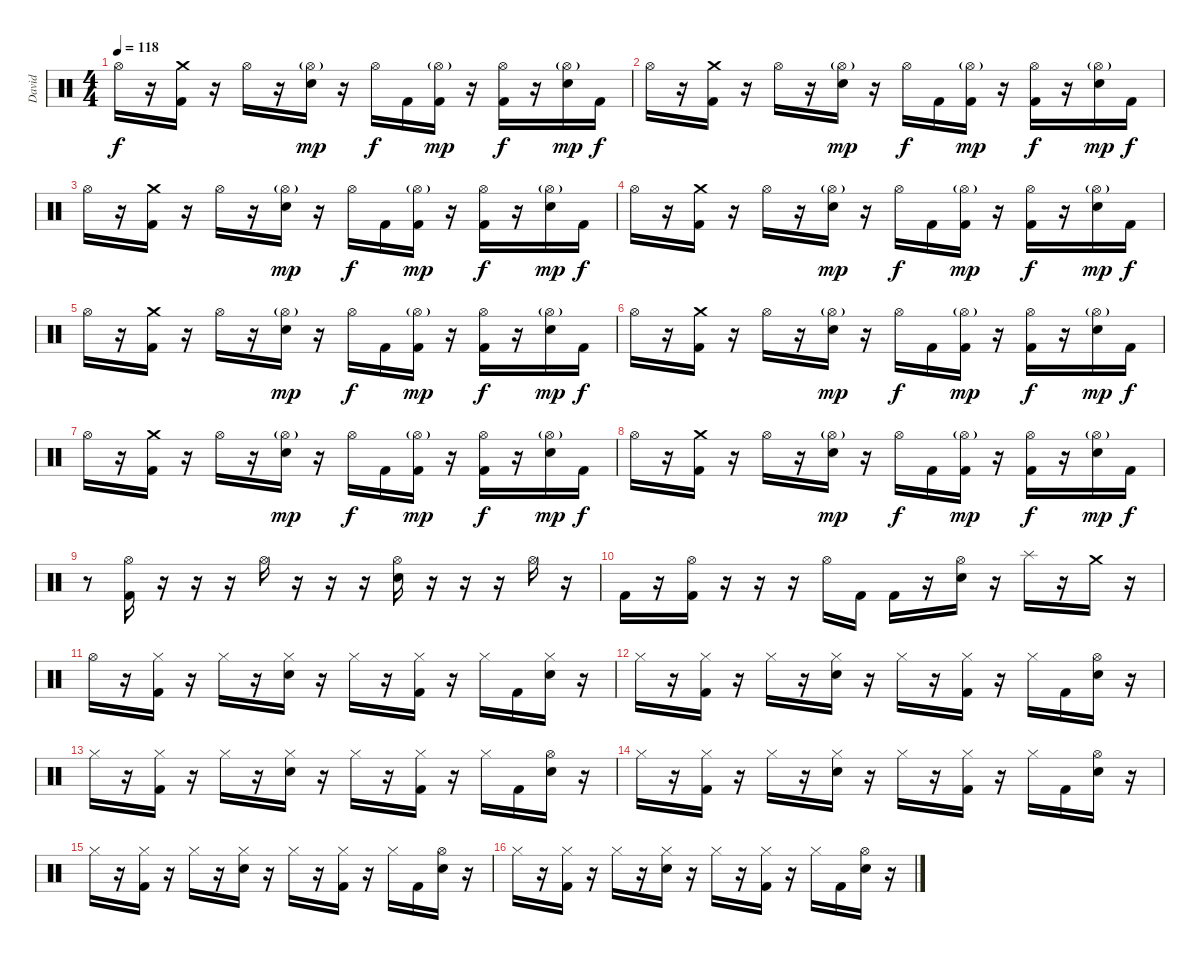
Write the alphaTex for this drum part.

\track ("David" "David") {instrument percussion}
\staff {score}
\articulation defaults
\ts (4 4)
\tempo 118
\clef neutral
\ks c "Hi-Hat (open)".16{dy f}
r.16 ("Crash medium (hit)" "Kick (hit) 2").16 r.16 "Hi-Hat (open)".16 r.16 ("Hi-Hat (open)"{g} "Electric Snare (hit)").16{dy mp} r.16 "Hi-Hat (open)".16{dy f} "Kick (hit) 2".16 ("Hi-Hat (open)"{g} "Kick (hit) 2").16{dy mp} r.16 ("Hi-Hat (open)" "Kick (hit) 2").16{dy f} r.16 ("Hi-Hat (open)"{g} "Electric Snare (hit)").16{dy mp} "Kick (hit) 2".16{dy f} |
"Hi-Hat (open)".16 r.16 ("Crash medium (hit)" "Kick (hit) 2").16 r.16 "Hi-Hat (open)".16 r.16 ("Hi-Hat (open)"{g} "Electric Snare (hit)").16{dy mp} r.16 "Hi-Hat (open)".16{dy f} "Kick (hit) 2".16 ("Hi-Hat (open)"{g} "Kick (hit) 2").16{dy mp} r.16 ("Hi-Hat (open)" "Kick (hit) 2").16{dy f} r.16 ("Hi-Hat (open)"{g} "Electric Snare (hit)").16{dy mp} "Kick (hit) 2".16{dy f} |
"Hi-Hat (open)".16 r.16 ("Crash medium (hit)" "Kick (hit) 2").16 r.16 "Hi-Hat (open)".16 r.16 ("Hi-Hat (open)"{g} "Electric Snare (hit)").16{dy mp} r.16 "Hi-Hat (open)".16{dy f} "Kick (hit) 2".16 ("Hi-Hat (open)"{g} "Kick (hit) 2").16{dy mp} r.16 ("Hi-Hat (open)" "Kick (hit) 2").16{dy f} r.16 ("Hi-Hat (open)"{g} "Electric Snare (hit)").16{dy mp} "Kick (hit) 2".16{dy f} |
"Hi-Hat (open)".16 r.16 ("Crash medium (hit)" "Kick (hit) 2").16 r.16 "Hi-Hat (open)".16 r.16 ("Hi-Hat (open)"{g} "Electric Snare (hit)").16{dy mp} r.16 "Hi-Hat (open)".16{dy f} "Kick (hit) 2".16 ("Hi-Hat (open)"{g} "Kick (hit) 2").16{dy mp} r.16 ("Hi-Hat (open)" "Kick (hit) 2").16{dy f} r.16 ("Hi-Hat (open)"{g} "Electric Snare (hit)").16{dy mp} "Kick (hit) 2".16{dy f} |
"Hi-Hat (open)".16 r.16 ("Crash medium (hit)" "Kick (hit) 2").16 r.16 "Hi-Hat (open)".16 r.16 ("Hi-Hat (open)"{g} "Electric Snare (hit)").16{dy mp} r.16 "Hi-Hat (open)".16{dy f} "Kick (hit) 2".16 ("Hi-Hat (open)"{g} "Kick (hit) 2").16{dy mp} r.16 ("Hi-Hat (open)" "Kick (hit) 2").16{dy f} r.16 ("Hi-Hat (open)"{g} "Electric Snare (hit)").16{dy mp} "Kick (hit) 2".16{dy f} |
"Hi-Hat (open)".16 r.16 ("Crash medium (hit)" "Kick (hit) 2").16 r.16 "Hi-Hat (open)".16 r.16 ("Hi-Hat (open)"{g} "Electric Snare (hit)").16{dy mp} r.16 "Hi-Hat (open)".16{dy f} "Kick (hit) 2".16 ("Hi-Hat (open)"{g} "Kick (hit) 2").16{dy mp} r.16 ("Hi-Hat (open)" "Kick (hit) 2").16{dy f} r.16 ("Hi-Hat (open)"{g} "Electric Snare (hit)").16{dy mp} "Kick (hit) 2".16{dy f} |
"Hi-Hat (open)".16 r.16 ("Crash medium (hit)" "Kick (hit) 2").16 r.16 "Hi-Hat (open)".16 r.16 ("Hi-Hat (open)"{g} "Electric Snare (hit)").16{dy mp} r.16 "Hi-Hat (open)".16{dy f} "Kick (hit) 2".16 ("Hi-Hat (open)"{g} "Kick (hit) 2").16{dy mp} r.16 ("Hi-Hat (open)" "Kick (hit) 2").16{dy f} r.16 ("Hi-Hat (open)"{g} "Electric Snare (hit)").16{dy mp} "Kick (hit) 2".16{dy f} |
"Hi-Hat (open)".16 r.16 ("Crash medium (hit)" "Kick (hit) 2").16 r.16 "Hi-Hat (open)".16 r.16 ("Hi-Hat (open)"{g} "Electric Snare (hit)").16{dy mp} r.16 "Hi-Hat (open)".16{dy f} "Kick (hit) 2".16 ("Hi-Hat (open)"{g} "Kick (hit) 2").16{dy mp} r.16 ("Hi-Hat (open)" "Kick (hit) 2").16{dy f} r.16 ("Hi-Hat (open)"{g} "Electric Snare (hit)").16{dy mp} "Kick (hit) 2".16{dy f} |
r.8 ("Hi-Hat (open)" "Kick (hit) 2").16 r.16 r.16 r.16 "Hi-Hat (open)".16 r.16 r.16 r.16 ("Hi-Hat (open)" "Electric Snare (hit)").16 r.16 r.16 r.16 "Hi-Hat (open)".16 r.16 |
"Kick (hit) 2".16 r.16 ("Hi-Hat (open)" "Kick (hit) 2").16 r.16 r.16 r.16 "Hi-Hat (open)".16 "Kick (hit) 2".16 "Kick (hit) 2".16 r.16 ("Hi-Hat (open)" "Electric Snare (hit)").16 r.16 "Splash (hit)".16 r.16 "Crash medium (hit)".16 r.16 |
"Hi-Hat (open)".16 r.16 ("Hi-Hat (closed)" "Kick (hit) 2").16 r.16 "Hi-Hat (closed)".16 r.16 ("Hi-Hat (closed)" "Electric Snare (hit)").16 r.16 "Hi-Hat (closed)".16 r.16 ("Hi-Hat (closed)" "Kick (hit) 2").16 r.16 "Hi-Hat (closed)".16 "Kick (hit) 2".16 ("Hi-Hat (closed)" "Electric Snare (hit)").16 r.16 |
"Hi-Hat (closed)".16 r.16 ("Hi-Hat (closed)" "Kick (hit) 2").16 r.16 "Hi-Hat (closed)".16 r.16 ("Hi-Hat (closed)" "Electric Snare (hit)").16 r.16 "Hi-Hat (closed)".16 r.16 ("Hi-Hat (closed)" "Kick (hit) 2").16 r.16 "Hi-Hat (closed)".16 "Kick (hit) 2".16 ("Hi-Hat (open)" "Electric Snare (hit)").16 r.16 |
"Hi-Hat (closed)".16 r.16 ("Hi-Hat (closed)" "Kick (hit) 2").16 r.16 "Hi-Hat (closed)".16 r.16 ("Hi-Hat (closed)" "Electric Snare (hit)").16 r.16 "Hi-Hat (closed)".16 r.16 ("Hi-Hat (closed)" "Kick (hit) 2").16 r.16 "Hi-Hat (closed)".16 "Kick (hit) 2".16 ("Hi-Hat (open)" "Electric Snare (hit)").16 r.16 |
"Hi-Hat (closed)".16 r.16 ("Hi-Hat (closed)" "Kick (hit) 2").16 r.16 "Hi-Hat (closed)".16 r.16 ("Hi-Hat (closed)" "Electric Snare (hit)").16 r.16 "Hi-Hat (closed)".16 r.16 ("Hi-Hat (closed)" "Kick (hit) 2").16 r.16 "Hi-Hat (closed)".16 "Kick (hit) 2".16 ("Hi-Hat (open)" "Electric Snare (hit)").16 r.16 |
"Hi-Hat (closed)".16 r.16 ("Hi-Hat (closed)" "Kick (hit) 2").16 r.16 "Hi-Hat (closed)".16 r.16 ("Hi-Hat (closed)" "Electric Snare (hit)").16 r.16 "Hi-Hat (closed)".16 r.16 ("Hi-Hat (closed)" "Kick (hit) 2").16 r.16 "Hi-Hat (closed)".16 "Kick (hit) 2".16 ("Hi-Hat (open)" "Electric Snare (hit)").16 r.16 |
"Hi-Hat (closed)".16 r.16 ("Hi-Hat (closed)" "Kick (hit) 2").16 r.16 "Hi-Hat (closed)".16 r.16 ("Hi-Hat (closed)" "Electric Snare (hit)").16 r.16 "Hi-Hat (closed)".16 r.16 ("Hi-Hat (closed)" "Kick (hit) 2").16 r.16 "Hi-Hat (closed)".16 "Kick (hit) 2".16 ("Hi-Hat (open)" "Electric Snare (hit)").16 r.16
